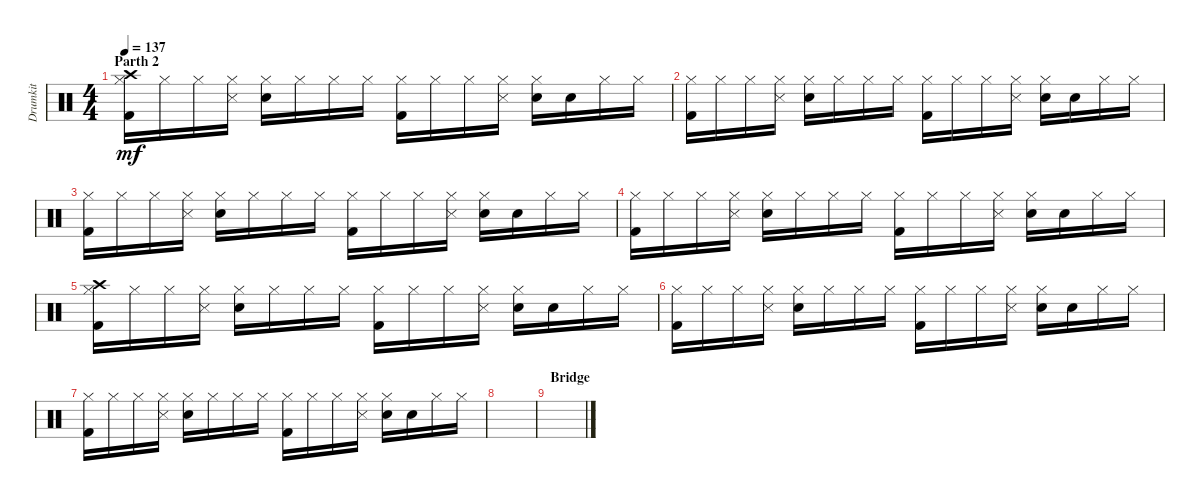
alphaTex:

\track ("Drumkit" "Drumkit") {instrument percussion}
\staff {score}
\articulation defaults
\ts (4 4)
\section ("" "Parth 2")
\tempo 137
\clef neutral
\ks c
("Hi-Hat (closed)" "Crash high (hit)" "Kick (hit) 2").16{dy mf} "Hi-Hat (closed)".16 "Hi-Hat (closed)".16 ("Hi-Hat (closed)" "Snare (side stick) 3").16 ("Hi-Hat (closed)" "Electric Snare (hit)").16 "Hi-Hat (closed)".16 "Hi-Hat (closed)".16 "Hi-Hat (closed)".16 ("Hi-Hat (closed)" "Kick (hit) 2").16 "Hi-Hat (closed)".16 "Hi-Hat (closed)".16 ("Hi-Hat (closed)" "Snare (side stick) 3").16 ("Hi-Hat (closed)" "Electric Snare (hit)").16 "Snare (hit)".16 "Hi-Hat (closed)".16 "Hi-Hat (closed)".16 |
("Hi-Hat (closed)" "Kick (hit) 2").16 "Hi-Hat (closed)".16 "Hi-Hat (closed)".16 ("Hi-Hat (closed)" "Snare (side stick) 3").16 ("Hi-Hat (closed)" "Electric Snare (hit)").16 "Hi-Hat (closed)".16 "Hi-Hat (closed)".16 "Hi-Hat (closed)".16 ("Hi-Hat (closed)" "Kick (hit) 2").16 "Hi-Hat (closed)".16 "Hi-Hat (closed)".16 ("Hi-Hat (closed)" "Snare (side stick) 3").16 ("Hi-Hat (closed)" "Electric Snare (hit)").16 "Snare (hit)".16 "Hi-Hat (closed)".16 "Hi-Hat (closed)".16 |
("Hi-Hat (closed)" "Kick (hit) 2").16 "Hi-Hat (closed)".16 "Hi-Hat (closed)".16 ("Hi-Hat (closed)" "Snare (side stick) 3").16 ("Hi-Hat (closed)" "Electric Snare (hit)").16 "Hi-Hat (closed)".16 "Hi-Hat (closed)".16 "Hi-Hat (closed)".16 ("Hi-Hat (closed)" "Kick (hit) 2").16 "Hi-Hat (closed)".16 "Hi-Hat (closed)".16 ("Hi-Hat (closed)" "Snare (side stick) 3").16 ("Hi-Hat (closed)" "Electric Snare (hit)").16 "Snare (hit)".16 "Hi-Hat (closed)".16 "Hi-Hat (closed)".16 |
("Hi-Hat (closed)" "Kick (hit) 2").16 "Hi-Hat (closed)".16 "Hi-Hat (closed)".16 ("Hi-Hat (closed)" "Snare (side stick) 3").16 ("Hi-Hat (closed)" "Electric Snare (hit)").16 "Hi-Hat (closed)".16 "Hi-Hat (closed)".16 "Hi-Hat (closed)".16 ("Hi-Hat (closed)" "Kick (hit) 2").16 "Hi-Hat (closed)".16 "Hi-Hat (closed)".16 ("Hi-Hat (closed)" "Snare (side stick) 3").16 ("Hi-Hat (closed)" "Electric Snare (hit)").16 "Snare (hit)".16 "Hi-Hat (closed)".16 "Hi-Hat (closed)".16 |
("Hi-Hat (closed)" "Crash high (hit)" "Kick (hit) 2").16 "Hi-Hat (closed)".16 "Hi-Hat (closed)".16 ("Hi-Hat (closed)" "Snare (side stick) 3").16 ("Hi-Hat (closed)" "Electric Snare (hit)").16 "Hi-Hat (closed)".16 "Hi-Hat (closed)".16 "Hi-Hat (closed)".16 ("Hi-Hat (closed)" "Kick (hit) 2").16 "Hi-Hat (closed)".16 "Hi-Hat (closed)".16 ("Hi-Hat (closed)" "Snare (side stick) 3").16 ("Hi-Hat (closed)" "Electric Snare (hit)").16 "Snare (hit)".16 "Hi-Hat (closed)".16 "Hi-Hat (closed)".16 |
("Hi-Hat (closed)" "Kick (hit) 2").16 "Hi-Hat (closed)".16 "Hi-Hat (closed)".16 ("Hi-Hat (closed)" "Snare (side stick) 3").16 ("Hi-Hat (closed)" "Electric Snare (hit)").16 "Hi-Hat (closed)".16 "Hi-Hat (closed)".16 "Hi-Hat (closed)".16 ("Hi-Hat (closed)" "Kick (hit) 2").16 "Hi-Hat (closed)".16 "Hi-Hat (closed)".16 ("Hi-Hat (closed)" "Snare (side stick) 3").16 ("Hi-Hat (closed)" "Electric Snare (hit)").16 "Snare (hit)".16 "Hi-Hat (closed)".16 "Hi-Hat (closed)".16 |
("Hi-Hat (closed)" "Kick (hit) 2").16 "Hi-Hat (closed)".16 "Hi-Hat (closed)".16 ("Hi-Hat (closed)" "Snare (side stick) 3").16 ("Hi-Hat (closed)" "Electric Snare (hit)").16 "Hi-Hat (closed)".16 "Hi-Hat (closed)".16 "Hi-Hat (closed)".16 ("Hi-Hat (closed)" "Kick (hit) 2").16 "Hi-Hat (closed)".16 "Hi-Hat (closed)".16 ("Hi-Hat (closed)" "Snare (side stick) 3").16 ("Hi-Hat (closed)" "Electric Snare (hit)").16 "Snare (hit)".16 "Hi-Hat (closed)".16 "Hi-Hat (closed)".16 |
|
\section ("" "Bridge")
